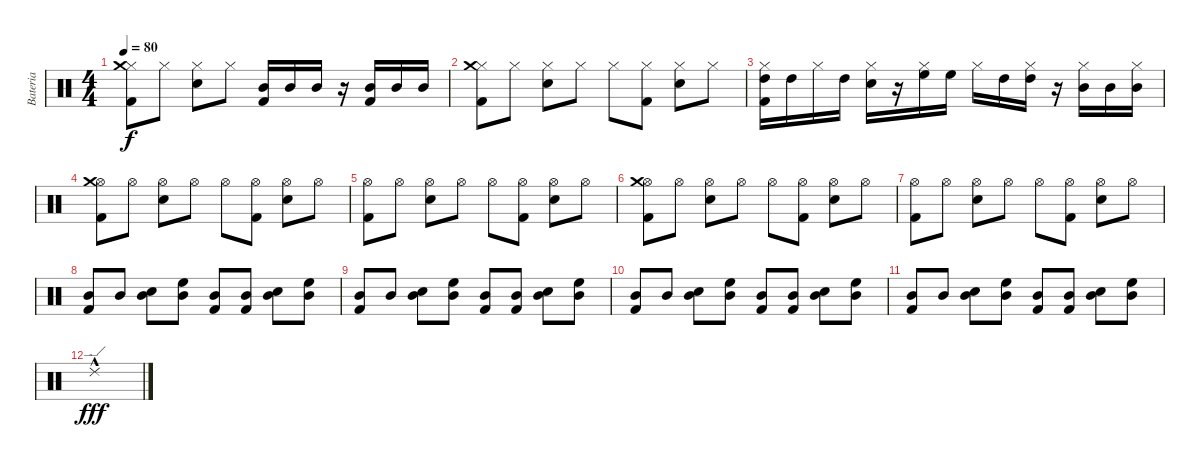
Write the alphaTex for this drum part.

\track ("Bateria" "Bateria") {instrument percussion}
\staff {score}
\articulation defaults
\ts (4 4)
\tempo 80
\clef neutral
\ks c
("Hi-Hat (closed)" "Kick (hit) 2" "Crash medium (hit)").8{dy f} "Hi-Hat (closed)".8 ("Hi-Hat (closed)" "Snare (hit) 2").8 "Hi-Hat (closed)".8 ("Mid Tom (hit)" "Kick (hit) 2").16 "Mid Tom (hit)".16 "Mid Tom (hit)".16 r.16 ("Mid Tom (hit)" "Kick (hit) 2").16 "Mid Tom (hit)".16 "Mid Tom (hit)".16 |
("Hi-Hat (closed)" "Kick (hit) 2" "Crash medium (hit)").8 "Hi-Hat (closed)".8 ("Hi-Hat (closed)" "Snare (hit) 2").8 "Hi-Hat (closed)".8 "Hi-Hat (closed)".8 ("Hi-Hat (closed)" "Kick (hit) 2").8 ("Hi-Hat (closed)" "Snare (hit) 2").8 "Hi-Hat (closed)".8 |
("Hi-Hat (closed)" "High Tom (hit)" "Kick (hit) 2").16 "High Tom (hit)".16 "Hi-Hat (closed)".16 "High Tom (hit)".16 ("Hi-Hat (closed)" "Snare (hit) 2").16 r.16 ("Hi-Hat (closed)" "High Floor Tom (hit)").16 "High Floor Tom (hit)".16 "Hi-Hat (closed)".16 "High Tom (hit)".16 ("Hi-Hat (closed)" "High Tom (hit)").16 r.16 ("Hi-Hat (closed)" "Mid Tom (hit)").16 "Mid Tom (hit)".16 ("Hi-Hat (closed)" "Mid Tom (hit)").16 |
("Hi-Hat (open)" "Kick (hit) 2" "Crash medium (hit)").8 "Hi-Hat (open)".8 ("Hi-Hat (open)" "Snare (hit) 2").8 "Hi-Hat (open)".8 "Hi-Hat (open)".8 ("Hi-Hat (open)" "Kick (hit) 2").8 ("Hi-Hat (open)" "Snare (hit) 2").8 "Hi-Hat (open)".8 |
("Hi-Hat (open)" "Kick (hit) 2").8 "Hi-Hat (open)".8 ("Hi-Hat (open)" "Snare (hit) 2").8 "Hi-Hat (open)".8 "Hi-Hat (open)".8 ("Hi-Hat (open)" "Kick (hit) 2").8 ("Hi-Hat (open)" "Snare (hit) 2").8 "Hi-Hat (open)".8 |
("Hi-Hat (open)" "Kick (hit) 2" "Crash medium (hit)").8 "Hi-Hat (open)".8 ("Hi-Hat (open)" "Snare (hit) 2").8 "Hi-Hat (open)".8 "Hi-Hat (open)".8 ("Hi-Hat (open)" "Kick (hit) 2").8 ("Hi-Hat (open)" "Snare (hit) 2").8 "Hi-Hat (open)".8 |
("Hi-Hat (open)" "Kick (hit) 2").8 "Hi-Hat (open)".8 ("Hi-Hat (open)" "Snare (hit) 2").8 "Hi-Hat (open)".8 "Hi-Hat (open)".8 ("Hi-Hat (open)" "Kick (hit) 2").8 ("Hi-Hat (open)" "Snare (hit) 2").8 "Hi-Hat (open)".8 |
("Mid Tom (hit)" "Kick (hit) 2").8 "Mid Tom (hit)".8 ("Mid Tom (hit)" "Snare (hit) 2").8 ("Mid Tom (hit)" "High Floor Tom (hit)").8 ("Mid Tom (hit)" "Kick (hit) 2").8 ("Mid Tom (hit)" "Kick (hit) 2").8 ("Mid Tom (hit)" "Snare (hit) 2").8 ("Mid Tom (hit)" "High Floor Tom (hit)").8 |
("Mid Tom (hit)" "Kick (hit) 2").8 "Mid Tom (hit)".8 ("Mid Tom (hit)" "Snare (hit) 2").8 ("Mid Tom (hit)" "High Floor Tom (hit)").8 ("Mid Tom (hit)" "Kick (hit) 2").8 ("Mid Tom (hit)" "Kick (hit) 2").8 ("Mid Tom (hit)" "Snare (hit) 2").8 ("Mid Tom (hit)" "High Floor Tom (hit)").8 |
("Mid Tom (hit)" "Kick (hit) 2").8 "Mid Tom (hit)".8 ("Mid Tom (hit)" "Snare (hit) 2").8 ("Mid Tom (hit)" "High Floor Tom (hit)").8 ("Mid Tom (hit)" "Kick (hit) 2").8 ("Mid Tom (hit)" "Kick (hit) 2").8 ("Mid Tom (hit)" "Snare (hit) 2").8 ("Mid Tom (hit)" "High Floor Tom (hit)").8 |
("Mid Tom (hit)" "Kick (hit) 2").8 "Mid Tom (hit)".8 ("Mid Tom (hit)" "Snare (hit) 2").8 ("Mid Tom (hit)" "High Floor Tom (hit)").8 ("Mid Tom (hit)" "Kick (hit) 2").8 ("Mid Tom (hit)" "Kick (hit) 2").8 ("Mid Tom (hit)" "Snare (hit) 2").8 ("Mid Tom (hit)" "High Floor Tom (hit)").8 |
"Ride (edge) 2"{hac}.1{dy fff}
